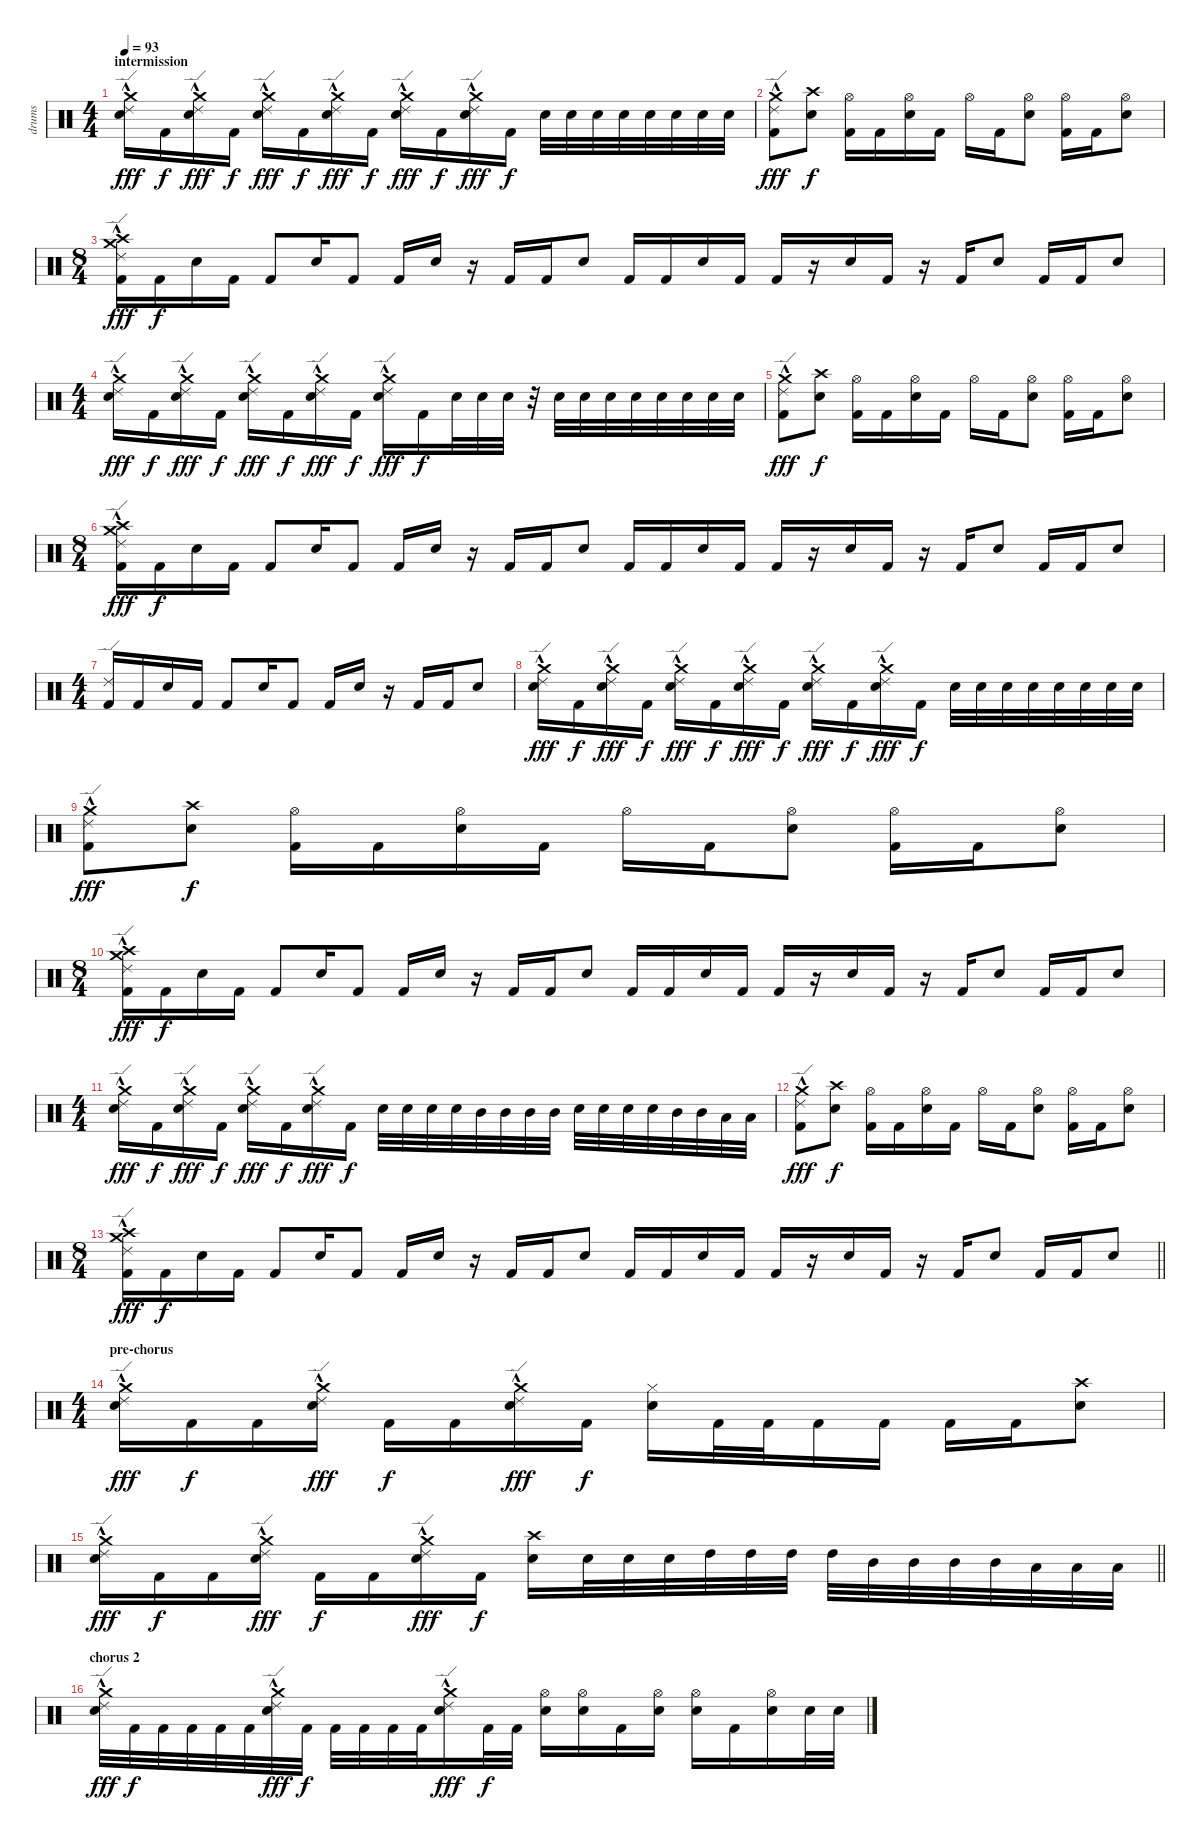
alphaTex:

\track ("drums" "drums") {instrument percussion}
\staff {score}
\articulation defaults
\ts (4 4)
\section ("" "intermission")
\tempo 93
\clef neutral
\ks c
("Electric Snare (hit)" "Ride (edge) 2"{hac} "Crash medium (hit)").16{dy fff} "Kick (hit) 2".16{dy f} ("Electric Snare (hit)" "Ride (edge) 2"{hac} "Crash medium (hit)").16{dy fff} "Kick (hit) 2".16{dy f} ("Electric Snare (hit)" "Ride (edge) 2"{hac} "Crash medium (hit)").16{dy fff} "Kick (hit) 2".16{dy f} ("Electric Snare (hit)" "Ride (edge) 2"{hac} "Crash medium (hit)").16{dy fff} "Kick (hit) 2".16{dy f} ("Electric Snare (hit)" "Ride (edge) 2"{hac} "Crash medium (hit)").16{dy fff} "Kick (hit) 2".16{dy f} ("Electric Snare (hit)" "Ride (edge) 2"{hac} "Crash medium (hit)").16{dy fff} "Kick (hit) 2".16{dy f} "Electric Snare (hit)".32 "Electric Snare (hit)".32 "Electric Snare (hit)".32 "Electric Snare (hit)".32 "Electric Snare (hit)".32 "Electric Snare (hit)".32 "Electric Snare (hit)".32 "Electric Snare (hit)".32 |
("Kick (hit) 2" "Ride (edge) 2"{hac} "Crash medium (hit)").8{dy fff} ("Electric Snare (hit)" "Crash high (hit)").8{dy f} ("Kick (hit) 2" "Hi-Hat (open)").16 "Kick (hit) 2".16 ("Electric Snare (hit)" "Hi-Hat (open)").16 "Kick (hit) 2".16 "Hi-Hat (open)".16 "Kick (hit) 2".16 ("Electric Snare (hit)" "Hi-Hat (open)").8 ("Kick (hit) 2" "Hi-Hat (open)").16 "Kick (hit) 2".16 ("Electric Snare (hit)" "Hi-Hat (open)").8 |
\ts (8 4)
("Kick (hit) 2" "Ride (edge) 2"{hac} "Crash medium (hit)" "Crash high (hit)").16{dy fff} "Kick (hit) 2".16{dy f} "Electric Snare (hit)".16 "Kick (hit) 2".16 "Kick (hit) 2".8 "Electric Snare (hit)".16 "Kick (hit) 2".8 "Kick (hit) 2".16 "Electric Snare (hit)".16 r.16 "Kick (hit) 2".16 "Kick (hit) 2".16 "Electric Snare (hit)".8 "Kick (hit) 2".16 "Kick (hit) 2".16 "Electric Snare (hit)".16 "Kick (hit) 2".16 "Kick (hit) 2".16 r.16 "Electric Snare (hit)".16 "Kick (hit) 2".16 r.16 "Kick (hit) 2".16 "Electric Snare (hit)".8 "Kick (hit) 2".16 "Kick (hit) 2".16 "Electric Snare (hit)".8 |
\ts (4 4)
("Electric Snare (hit)" "Ride (edge) 2"{hac} "Crash medium (hit)").16{dy fff} "Kick (hit) 2".16{dy f} ("Electric Snare (hit)" "Ride (edge) 2"{hac} "Crash medium (hit)").16{dy fff} "Kick (hit) 2".16{dy f} ("Electric Snare (hit)" "Ride (edge) 2"{hac} "Crash medium (hit)").16{dy fff} "Kick (hit) 2".16{dy f} ("Electric Snare (hit)" "Ride (edge) 2"{hac} "Crash medium (hit)").16{dy fff} "Kick (hit) 2".16{dy f} ("Electric Snare (hit)" "Ride (edge) 2"{hac} "Crash medium (hit)").16{dy fff} "Kick (hit) 2".16{dy f} "Electric Snare (hit)".32 "Electric Snare (hit)".32 "Electric Snare (hit)".32 r.32 "Electric Snare (hit)".32 "Electric Snare (hit)".32 "Electric Snare (hit)".32 "Electric Snare (hit)".32 "Electric Snare (hit)".32 "Electric Snare (hit)".32 "Electric Snare (hit)".32 "Electric Snare (hit)".32 |
("Kick (hit) 2" "Ride (edge) 2"{hac} "Crash medium (hit)").8{dy fff} ("Electric Snare (hit)" "Crash high (hit)").8{dy f} ("Kick (hit) 2" "Hi-Hat (open)").16 "Kick (hit) 2".16 ("Electric Snare (hit)" "Hi-Hat (open)").16 "Kick (hit) 2".16 "Hi-Hat (open)".16 "Kick (hit) 2".16 ("Electric Snare (hit)" "Hi-Hat (open)").8 ("Kick (hit) 2" "Hi-Hat (open)").16 "Kick (hit) 2".16 ("Electric Snare (hit)" "Hi-Hat (open)").8 |
\ts (8 4)
("Kick (hit) 2" "Ride (edge) 2"{hac} "Crash medium (hit)" "Crash high (hit)").16{dy fff} "Kick (hit) 2".16{dy f} "Electric Snare (hit)".16 "Kick (hit) 2".16 "Kick (hit) 2".8 "Electric Snare (hit)".16 "Kick (hit) 2".8 "Kick (hit) 2".16 "Electric Snare (hit)".16 r.16 "Kick (hit) 2".16 "Kick (hit) 2".16 "Electric Snare (hit)".8 "Kick (hit) 2".16 "Kick (hit) 2".16 "Electric Snare (hit)".16 "Kick (hit) 2".16 "Kick (hit) 2".16 r.16 "Electric Snare (hit)".16 "Kick (hit) 2".16 r.16 "Kick (hit) 2".16 "Electric Snare (hit)".8 "Kick (hit) 2".16 "Kick (hit) 2".16 "Electric Snare (hit)".8 |
\ts (4 4)
("Kick (hit) 2" "Ride (edge) 2").16 "Kick (hit) 2".16 "Electric Snare (hit)".16 "Kick (hit) 2".16 "Kick (hit) 2".8 "Electric Snare (hit)".16 "Kick (hit) 2".8 "Kick (hit) 2".16 "Electric Snare (hit)".16 r.16 "Kick (hit) 2".16 "Kick (hit) 2".16 "Electric Snare (hit)".8 |
("Electric Snare (hit)" "Ride (edge) 2"{hac} "Crash medium (hit)").16{dy fff} "Kick (hit) 2".16{dy f} ("Electric Snare (hit)" "Ride (edge) 2"{hac} "Crash medium (hit)").16{dy fff} "Kick (hit) 2".16{dy f} ("Electric Snare (hit)" "Ride (edge) 2"{hac} "Crash medium (hit)").16{dy fff} "Kick (hit) 2".16{dy f} ("Electric Snare (hit)" "Ride (edge) 2"{hac} "Crash medium (hit)").16{dy fff} "Kick (hit) 2".16{dy f} ("Electric Snare (hit)" "Ride (edge) 2"{hac} "Crash medium (hit)").16{dy fff} "Kick (hit) 2".16{dy f} ("Electric Snare (hit)" "Ride (edge) 2"{hac} "Crash medium (hit)").16{dy fff} "Kick (hit) 2".16{dy f} "Electric Snare (hit)".32 "Electric Snare (hit)".32 "Electric Snare (hit)".32 "Electric Snare (hit)".32 "Electric Snare (hit)".32 "Electric Snare (hit)".32 "Electric Snare (hit)".32 "Electric Snare (hit)".32 |
("Kick (hit) 2" "Ride (edge) 2"{hac} "Crash medium (hit)").8{dy fff} ("Electric Snare (hit)" "Crash high (hit)").8{dy f} ("Kick (hit) 2" "Hi-Hat (open)").16 "Kick (hit) 2".16 ("Electric Snare (hit)" "Hi-Hat (open)").16 "Kick (hit) 2".16 "Hi-Hat (open)".16 "Kick (hit) 2".16 ("Electric Snare (hit)" "Hi-Hat (open)").8 ("Kick (hit) 2" "Hi-Hat (open)").16 "Kick (hit) 2".16 ("Electric Snare (hit)" "Hi-Hat (open)").8 |
\ts (8 4)
("Kick (hit) 2" "Ride (edge) 2"{hac} "Crash medium (hit)" "Crash high (hit)").16{dy fff} "Kick (hit) 2".16{dy f} "Electric Snare (hit)".16 "Kick (hit) 2".16 "Kick (hit) 2".8 "Electric Snare (hit)".16 "Kick (hit) 2".8 "Kick (hit) 2".16 "Electric Snare (hit)".16 r.16 "Kick (hit) 2".16 "Kick (hit) 2".16 "Electric Snare (hit)".8 "Kick (hit) 2".16 "Kick (hit) 2".16 "Electric Snare (hit)".16 "Kick (hit) 2".16 "Kick (hit) 2".16 r.16 "Electric Snare (hit)".16 "Kick (hit) 2".16 r.16 "Kick (hit) 2".16 "Electric Snare (hit)".8 "Kick (hit) 2".16 "Kick (hit) 2".16 "Electric Snare (hit)".8 |
\ts (4 4)
("Electric Snare (hit)" "Ride (edge) 2"{hac} "Crash medium (hit)").16{dy fff} "Kick (hit) 2".16{dy f} ("Electric Snare (hit)" "Ride (edge) 2"{hac} "Crash medium (hit)").16{dy fff} "Kick (hit) 2".16{dy f} ("Electric Snare (hit)" "Ride (edge) 2"{hac} "Crash medium (hit)").16{dy fff} "Kick (hit) 2".16{dy f} ("Electric Snare (hit)" "Ride (edge) 2"{hac} "Crash medium (hit)").16{dy fff} "Kick (hit) 2".16{dy f} "Electric Snare (hit)".32 "Electric Snare (hit)".32 "Electric Snare (hit)".32 "Electric Snare (hit)".32 "Mid Tom (hit)".32 "Mid Tom (hit)".32 "Mid Tom (hit)".32 "Mid Tom (hit)".32 "Electric Snare (hit)".32 "Electric Snare (hit)".32 "Electric Snare (hit)".32 "Electric Snare (hit)".32 "Mid Tom (hit)".32 "Mid Tom (hit)".32 "Low Tom (hit)".32 "Low Tom (hit)".32 |
("Kick (hit) 2" "Ride (edge) 2"{hac} "Crash medium (hit)").8{dy fff} ("Electric Snare (hit)" "Crash high (hit)").8{dy f} ("Kick (hit) 2" "Hi-Hat (open)").16 "Kick (hit) 2".16 ("Electric Snare (hit)" "Hi-Hat (open)").16 "Kick (hit) 2".16 "Hi-Hat (open)".16 "Kick (hit) 2".16 ("Electric Snare (hit)" "Hi-Hat (open)").8 ("Kick (hit) 2" "Hi-Hat (open)").16 "Kick (hit) 2".16 ("Electric Snare (hit)" "Hi-Hat (open)").8 |
\ts (8 4)
\barLineRight lightlight
("Kick (hit) 2" "Ride (edge) 2"{hac} "Crash medium (hit)" "Crash high (hit)").16{dy fff} "Kick (hit) 2".16{dy f} "Electric Snare (hit)".16 "Kick (hit) 2".16 "Kick (hit) 2".8 "Electric Snare (hit)".16 "Kick (hit) 2".8 "Kick (hit) 2".16 "Electric Snare (hit)".16 r.16 "Kick (hit) 2".16 "Kick (hit) 2".16 "Electric Snare (hit)".8 "Kick (hit) 2".16 "Kick (hit) 2".16 "Electric Snare (hit)".16 "Kick (hit) 2".16 "Kick (hit) 2".16 r.16 "Electric Snare (hit)".16 "Kick (hit) 2".16 r.16 "Kick (hit) 2".16 "Electric Snare (hit)".8 "Kick (hit) 2".16 "Kick (hit) 2".16 "Electric Snare (hit)".8 |
\ts (4 4)
\section ("" "pre-chorus")
("Electric Snare (hit)" "Ride (edge) 2"{hac} "Crash medium (hit)").16{dy fff} "Kick (hit) 2".16{dy f} "Kick (hit) 2".16 ("Electric Snare (hit)" "Ride (edge) 2"{hac} "Crash medium (hit)").16{dy fff} "Kick (hit) 2".16{dy f} "Kick (hit) 2".16 ("Electric Snare (hit)" "Ride (edge) 2"{hac} "Crash medium (hit)").16{dy fff} "Kick (hit) 2".16{dy f} ("Electric Snare (hit)" "Hi-Hat (closed)").16 "Kick (hit) 2".32 "Kick (hit) 2".32 "Kick (hit) 2".16 "Kick (hit) 2".16 "Kick (hit) 2".16 "Kick (hit) 2".16 ("Electric Snare (hit)" "Crash high (hit)").8 |
\barLineRight lightlight
("Electric Snare (hit)" "Ride (edge) 2"{hac} "Crash medium (hit)").16{dy fff} "Kick (hit) 2".16{dy f} "Kick (hit) 2".16 ("Electric Snare (hit)" "Ride (edge) 2"{hac} "Crash medium (hit)").16{dy fff} "Kick (hit) 2".16{dy f} "Kick (hit) 2".16 ("Electric Snare (hit)" "Ride (edge) 2"{hac} "Crash medium (hit)").16{dy fff} "Kick (hit) 2".16{dy f} ("Electric Snare (hit)" "Crash high (hit)").16 "Electric Snare (hit)".32 "Electric Snare (hit)".32 "Electric Snare (hit)".32 "High Tom (hit)".32 "High Tom (hit)".32 "High Tom (hit)".32 "High Tom (hit)".32 "Mid Tom (hit)".32 "Mid Tom (hit)".32 "Mid Tom (hit)".32 "Mid Tom (hit)".32 "Low Tom (hit)".32 "Low Tom (hit)".32 "Low Tom (hit)".32 |
\section ("" "chorus 2")
("Electric Snare (hit)" "Ride (edge) 2"{hac} "Crash medium (hit)").32{dy fff} "Kick (hit) 2".32{dy f} "Kick (hit) 2".32 "Kick (hit) 2".32 "Kick (hit) 2".32 "Kick (hit) 2".32 ("Electric Snare (hit)" "Ride (edge) 2"{hac} "Crash medium (hit)").32{dy fff} "Kick (hit) 2".32{dy f} "Kick (hit) 2".32 "Kick (hit) 2".32 "Kick (hit) 2".32 "Kick (hit) 2".32 ("Electric Snare (hit)" "Ride (edge) 2"{hac} "Crash medium (hit)").16{dy fff} "Kick (hit) 2".32{dy f} "Kick (hit) 2".32 ("Electric Snare (hit)" "Hi-Hat (open)").16 ("Electric Snare (hit)" "Hi-Hat (open)").16 "Kick (hit) 2".16 ("Electric Snare (hit)" "Hi-Hat (open)").16 ("Electric Snare (hit)" "Hi-Hat (open)").16 "Kick (hit) 2".16 ("Electric Snare (hit)" "Hi-Hat (open)").16 "Electric Snare (hit)".32 "Electric Snare (hit)".32
